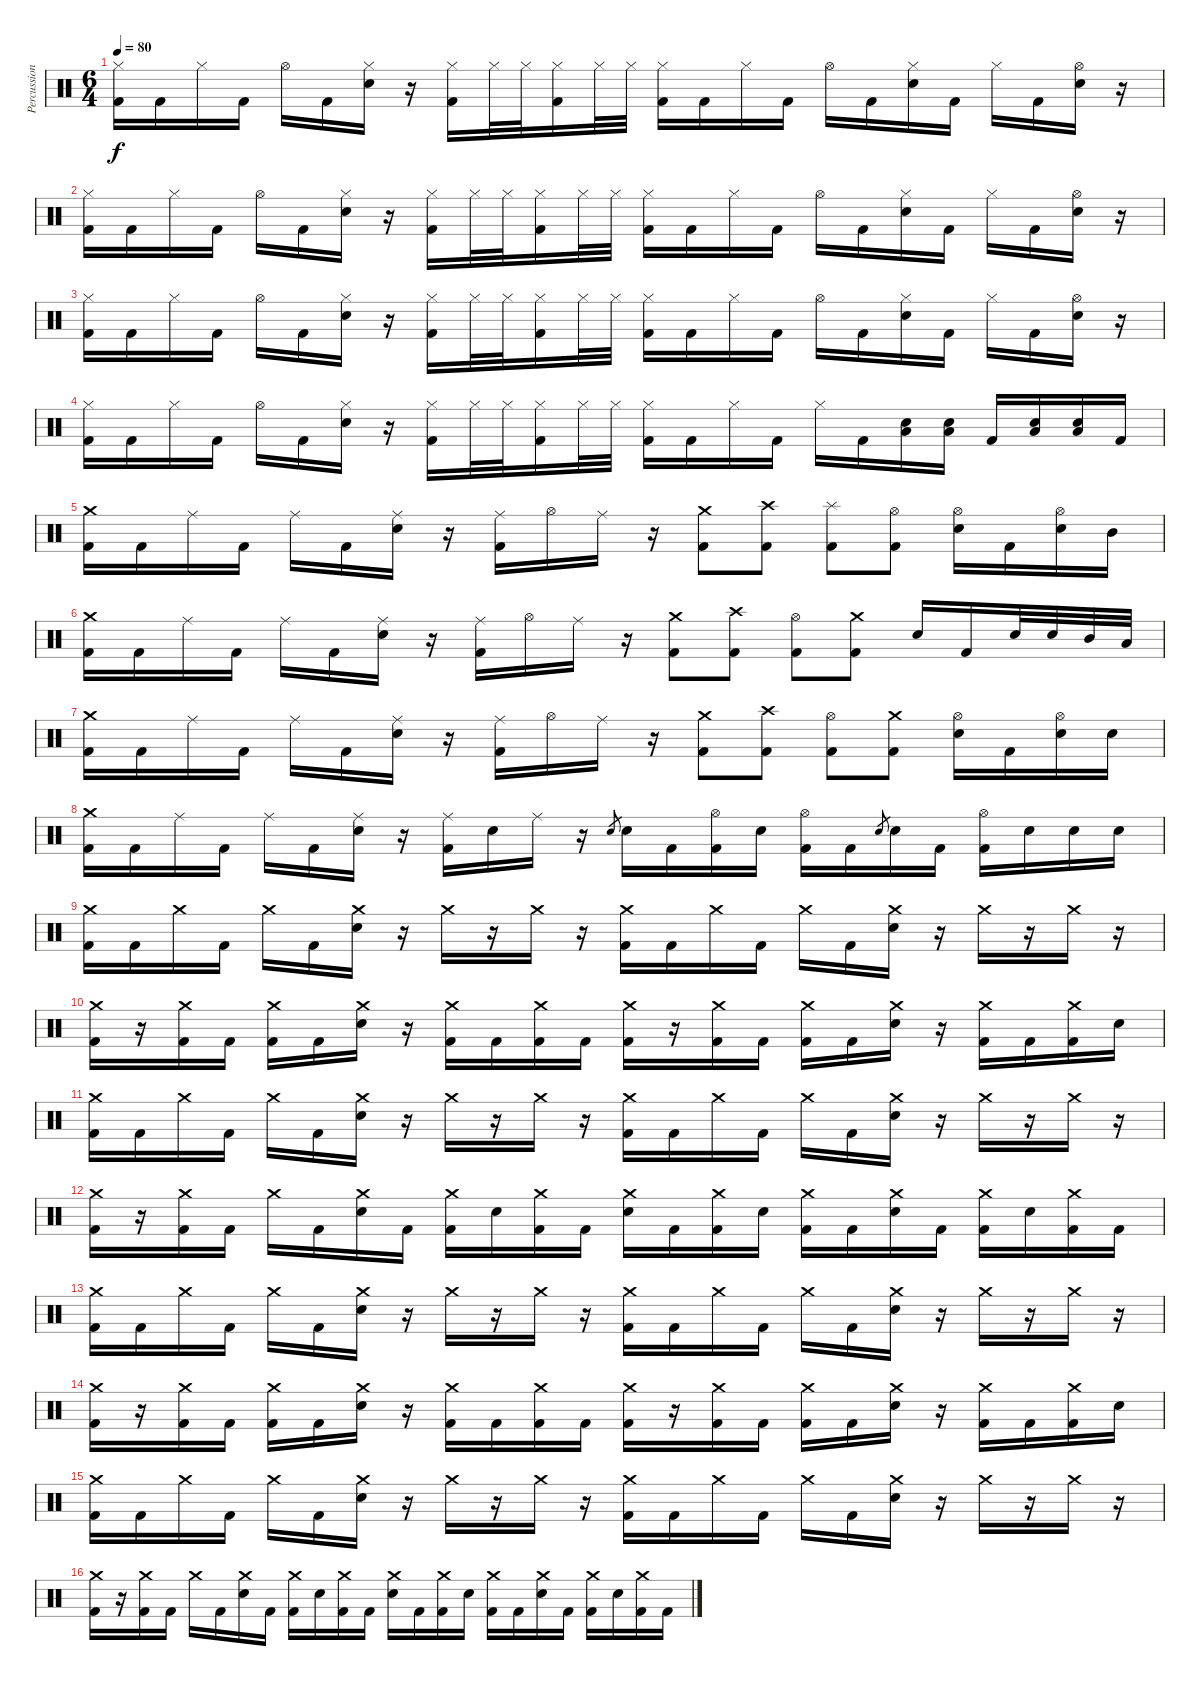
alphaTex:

\track ("Percussion" "Percussion") {instrument percussion}
\staff {score}
\articulation defaults
\ts (6 4)
\tempo 80
\clef neutral
\ks c
("Hi-Hat (closed)" "Kick (hit) 2").16{dy f} "Kick (hit) 2".16 "Hi-Hat (closed)".16 "Kick (hit) 2".16 "Hi-Hat (open)".16 "Kick (hit) 2".16 ("Hi-Hat (closed)" "Electric Snare (hit)").16 r.16 ("Hi-Hat (closed)" "Kick (hit) 2").16 "Hi-Hat (closed)".32 "Hi-Hat (closed)".32 ("Hi-Hat (closed)" "Kick (hit) 2").16 "Hi-Hat (closed)".32 "Hi-Hat (closed)".32 ("Hi-Hat (closed)" "Kick (hit) 2").16 "Kick (hit) 2".16 "Hi-Hat (closed)".16 "Kick (hit) 2".16 "Hi-Hat (open)".16 "Kick (hit) 2".16 ("Hi-Hat (closed)" "Electric Snare (hit)").16 "Kick (hit) 2".16 "Hi-Hat (closed)".16 "Kick (hit) 2".16 ("Hi-Hat (open)" "Electric Snare (hit)").16 r.16 |
("Hi-Hat (closed)" "Kick (hit) 2").16 "Kick (hit) 2".16 "Hi-Hat (closed)".16 "Kick (hit) 2".16 "Hi-Hat (open)".16 "Kick (hit) 2".16 ("Hi-Hat (closed)" "Electric Snare (hit)").16 r.16 ("Hi-Hat (closed)" "Kick (hit) 2").16 "Hi-Hat (closed)".32 "Hi-Hat (closed)".32 ("Hi-Hat (closed)" "Kick (hit) 2").16 "Hi-Hat (closed)".32 "Hi-Hat (closed)".32 ("Hi-Hat (closed)" "Kick (hit) 2").16 "Kick (hit) 2".16 "Hi-Hat (closed)".16 "Kick (hit) 2".16 "Hi-Hat (open)".16 "Kick (hit) 2".16 ("Hi-Hat (closed)" "Electric Snare (hit)").16 "Kick (hit) 2".16 "Hi-Hat (closed)".16 "Kick (hit) 2".16 ("Hi-Hat (open)" "Electric Snare (hit)").16 r.16 |
("Hi-Hat (closed)" "Kick (hit) 2").16 "Kick (hit) 2".16 "Hi-Hat (closed)".16 "Kick (hit) 2".16 "Hi-Hat (open)".16 "Kick (hit) 2".16 ("Hi-Hat (closed)" "Electric Snare (hit)").16 r.16 ("Hi-Hat (closed)" "Kick (hit) 2").16 "Hi-Hat (closed)".32 "Hi-Hat (closed)".32 ("Hi-Hat (closed)" "Kick (hit) 2").16 "Hi-Hat (closed)".32 "Hi-Hat (closed)".32 ("Hi-Hat (closed)" "Kick (hit) 2").16 "Kick (hit) 2".16 "Hi-Hat (closed)".16 "Kick (hit) 2".16 "Hi-Hat (open)".16 "Kick (hit) 2".16 ("Hi-Hat (closed)" "Electric Snare (hit)").16 "Kick (hit) 2".16 "Hi-Hat (closed)".16 "Kick (hit) 2".16 ("Hi-Hat (open)" "Electric Snare (hit)").16 r.16 |
("Hi-Hat (closed)" "Kick (hit) 2").16 "Kick (hit) 2".16 "Hi-Hat (closed)".16 "Kick (hit) 2".16 "Hi-Hat (open)".16 "Kick (hit) 2".16 ("Hi-Hat (closed)" "Electric Snare (hit)").16 r.16 ("Hi-Hat (closed)" "Kick (hit) 2").16 "Hi-Hat (closed)".32 "Hi-Hat (closed)".32 ("Hi-Hat (closed)" "Kick (hit) 2").16 "Hi-Hat (closed)".32 "Hi-Hat (closed)".32 ("Hi-Hat (closed)" "Kick (hit) 2").16 "Kick (hit) 2".16 "Hi-Hat (closed)".16 "Kick (hit) 2".16 "Hi-Hat (closed)".16 "Kick (hit) 2".16 ("Low Floor Tom (hit)" "Electric Snare (hit)").16 ("Low Floor Tom (hit)" "Electric Snare (hit)").16 "Kick (hit) 2".16 ("Low Floor Tom (hit)" "Electric Snare (hit)").16 ("Low Floor Tom (hit)" "Electric Snare (hit)").16 "Kick (hit) 2".16 |
("Crash medium (hit)" "Kick (hit) 2").16 "Kick (hit) 2".16 "Ride (middle)".16 "Kick (hit) 2".16 "Ride (middle)".16 "Kick (hit) 2".16 ("Ride (middle)" "Electric Snare (hit)").16 r.16 ("Ride (middle)" "Kick (hit) 2").16 "Hi-Hat (open)".16 "Ride (middle)".16 r.16 ("Crash medium (hit)" "Kick (hit) 2").8 ("Crash high (hit)" "Kick (hit) 2").8 ("Splash (hit)" "Kick (hit) 2").8 ("Hi-Hat (open)" "Kick (hit) 2").8 ("Hi-Hat (open)" "Electric Snare (hit)").16 "Kick (hit) 2".16 ("Hi-Hat (open)" "Electric Snare (hit)").16 "Mid Tom (hit)".16 |
("Crash medium (hit)" "Kick (hit) 2").16 "Kick (hit) 2".16 "Ride (middle)".16 "Kick (hit) 2".16 "Ride (middle)".16 "Kick (hit) 2".16 ("Ride (middle)" "Electric Snare (hit)").16 r.16 ("Ride (middle)" "Kick (hit) 2").16 "Hi-Hat (open)".16 "Ride (middle)".16 r.16 ("Crash medium (hit)" "Kick (hit) 2").8 ("Crash high (hit)" "Kick (hit) 2").8 ("Hi-Hat (open)" "Kick (hit) 2").8 ("Crash medium (hit)" "Kick (hit) 2").8 "Electric Snare (hit)".16 "Kick (hit) 2".16 "Electric Snare (hit)".32 "Electric Snare (hit)".32 "Mid Tom (hit)".32 "Low Tom (hit)".32 |
("Crash medium (hit)" "Kick (hit) 2").16 "Kick (hit) 2".16 "Ride (middle)".16 "Kick (hit) 2".16 "Ride (middle)".16 "Kick (hit) 2".16 ("Ride (middle)" "Electric Snare (hit)").16 r.16 ("Ride (middle)" "Kick (hit) 2").16 "Hi-Hat (open)".16 "Ride (middle)".16 r.16 ("Crash medium (hit)" "Kick (hit) 2").8 ("Crash high (hit)" "Kick (hit) 2").8 ("Hi-Hat (open)" "Kick (hit) 2").8 ("Crash medium (hit)" "Kick (hit) 2").8 ("Hi-Hat (open)" "Electric Snare (hit)").16 "Kick (hit) 2".16 ("Hi-Hat (open)" "Electric Snare (hit)").16 "Electric Snare (hit)".16 |
("Crash medium (hit)" "Kick (hit) 2").16 "Kick (hit) 2".16 "Ride (middle)".16 "Kick (hit) 2".16 "Ride (middle)".16 "Kick (hit) 2".16 ("Ride (middle)" "Electric Snare (hit)").16 r.16 ("Ride (middle)" "Kick (hit) 2").16 "Electric Snare (hit)".16 "Ride (middle)".16 r.16 "Electric Snare (hit)".8{gr} "Electric Snare (hit)".16 "Kick (hit) 2".16 ("Hi-Hat (open)" "Kick (hit) 2").16 "Electric Snare (hit)".16 ("Hi-Hat (open)" "Kick (hit) 2").16 "Kick (hit) 2".16 "Electric Snare (hit)".8{gr} "Electric Snare (hit)".16 "Kick (hit) 2".16 ("Hi-Hat (open)" "Kick (hit) 2").16 "Electric Snare (hit)".16 "Electric Snare (hit)".16 "Electric Snare (hit)".16 |
("Crash medium (hit)" "Kick (hit) 2").16 "Kick (hit) 2".16 "Crash medium (hit)".16 "Kick (hit) 2".16 "Crash medium (hit)".16 "Kick (hit) 2".16 ("Crash medium (hit)" "Electric Snare (hit)").16 r.16 "Crash medium (hit)".16 r.16 "Crash medium (hit)".16 r.16 ("Crash medium (hit)" "Kick (hit) 2").16 "Kick (hit) 2".16 "Crash medium (hit)".16 "Kick (hit) 2".16 "Crash medium (hit)".16 "Kick (hit) 2".16 ("Crash medium (hit)" "Electric Snare (hit)").16 r.16 "Crash medium (hit)".16 r.16 "Crash medium (hit)".16 r.16 |
("Crash medium (hit)" "Kick (hit) 2").16 r.16 ("Crash medium (hit)" "Kick (hit) 2").16 "Kick (hit) 2".16 ("Crash medium (hit)" "Kick (hit) 2").16 "Kick (hit) 2".16 ("Crash medium (hit)" "Electric Snare (hit)").16 r.16 ("Crash medium (hit)" "Kick (hit) 2").16 "Kick (hit) 2".16 ("Crash medium (hit)" "Kick (hit) 2").16 "Kick (hit) 2".16 ("Crash medium (hit)" "Kick (hit) 2").16 r.16 ("Crash medium (hit)" "Kick (hit) 2").16 "Kick (hit) 2".16 ("Crash medium (hit)" "Kick (hit) 2").16 "Kick (hit) 2".16 ("Crash medium (hit)" "Electric Snare (hit)").16 r.16 ("Crash medium (hit)" "Kick (hit) 2").16 "Kick (hit) 2".16 ("Crash medium (hit)" "Kick (hit) 2").16 "Electric Snare (hit)".16 |
("Crash medium (hit)" "Kick (hit) 2").16 "Kick (hit) 2".16 "Crash medium (hit)".16 "Kick (hit) 2".16 "Crash medium (hit)".16 "Kick (hit) 2".16 ("Crash medium (hit)" "Electric Snare (hit)").16 r.16 "Crash medium (hit)".16 r.16 "Crash medium (hit)".16 r.16 ("Crash medium (hit)" "Kick (hit) 2").16 "Kick (hit) 2".16 "Crash medium (hit)".16 "Kick (hit) 2".16 "Crash medium (hit)".16 "Kick (hit) 2".16 ("Crash medium (hit)" "Electric Snare (hit)").16 r.16 "Crash medium (hit)".16 r.16 "Crash medium (hit)".16 r.16 |
("Crash medium (hit)" "Kick (hit) 2").16 r.16 ("Crash medium (hit)" "Kick (hit) 2").16 "Kick (hit) 2".16 "Crash medium (hit)".16 "Kick (hit) 2".16 ("Crash medium (hit)" "Electric Snare (hit)").16 "Kick (hit) 2".16 ("Crash medium (hit)" "Kick (hit) 2").16 "Electric Snare (hit)".16 ("Crash medium (hit)" "Kick (hit) 2").16 "Kick (hit) 2".16 ("Crash medium (hit)" "Electric Snare (hit)").16 "Kick (hit) 2".16 ("Crash medium (hit)" "Kick (hit) 2").16 "Electric Snare (hit)".16 ("Crash medium (hit)" "Kick (hit) 2").16 "Kick (hit) 2".16 ("Crash medium (hit)" "Electric Snare (hit)").16 "Kick (hit) 2".16 ("Crash medium (hit)" "Kick (hit) 2").16 "Electric Snare (hit)".16 ("Crash medium (hit)" "Kick (hit) 2").16 "Kick (hit) 2".16 |
("Crash medium (hit)" "Kick (hit) 2").16 "Kick (hit) 2".16 "Crash medium (hit)".16 "Kick (hit) 2".16 "Crash medium (hit)".16 "Kick (hit) 2".16 ("Crash medium (hit)" "Electric Snare (hit)").16 r.16 "Crash medium (hit)".16 r.16 "Crash medium (hit)".16 r.16 ("Crash medium (hit)" "Kick (hit) 2").16 "Kick (hit) 2".16 "Crash medium (hit)".16 "Kick (hit) 2".16 "Crash medium (hit)".16 "Kick (hit) 2".16 ("Crash medium (hit)" "Electric Snare (hit)").16 r.16 "Crash medium (hit)".16 r.16 "Crash medium (hit)".16 r.16 |
("Crash medium (hit)" "Kick (hit) 2").16 r.16 ("Crash medium (hit)" "Kick (hit) 2").16 "Kick (hit) 2".16 ("Crash medium (hit)" "Kick (hit) 2").16 "Kick (hit) 2".16 ("Crash medium (hit)" "Electric Snare (hit)").16 r.16 ("Crash medium (hit)" "Kick (hit) 2").16 "Kick (hit) 2".16 ("Crash medium (hit)" "Kick (hit) 2").16 "Kick (hit) 2".16 ("Crash medium (hit)" "Kick (hit) 2").16 r.16 ("Crash medium (hit)" "Kick (hit) 2").16 "Kick (hit) 2".16 ("Crash medium (hit)" "Kick (hit) 2").16 "Kick (hit) 2".16 ("Crash medium (hit)" "Electric Snare (hit)").16 r.16 ("Crash medium (hit)" "Kick (hit) 2").16 "Kick (hit) 2".16 ("Crash medium (hit)" "Kick (hit) 2").16 "Electric Snare (hit)".16 |
("Crash medium (hit)" "Kick (hit) 2").16 "Kick (hit) 2".16 "Crash medium (hit)".16 "Kick (hit) 2".16 "Crash medium (hit)".16 "Kick (hit) 2".16 ("Crash medium (hit)" "Electric Snare (hit)").16 r.16 "Crash medium (hit)".16 r.16 "Crash medium (hit)".16 r.16 ("Crash medium (hit)" "Kick (hit) 2").16 "Kick (hit) 2".16 "Crash medium (hit)".16 "Kick (hit) 2".16 "Crash medium (hit)".16 "Kick (hit) 2".16 ("Crash medium (hit)" "Electric Snare (hit)").16 r.16 "Crash medium (hit)".16 r.16 "Crash medium (hit)".16 r.16 |
("Crash medium (hit)" "Kick (hit) 2").16 r.16 ("Crash medium (hit)" "Kick (hit) 2").16 "Kick (hit) 2".16 "Crash medium (hit)".16 "Kick (hit) 2".16 ("Crash medium (hit)" "Electric Snare (hit)").16 "Kick (hit) 2".16 ("Crash medium (hit)" "Kick (hit) 2").16 "Electric Snare (hit)".16 ("Crash medium (hit)" "Kick (hit) 2").16 "Kick (hit) 2".16 ("Crash medium (hit)" "Electric Snare (hit)").16 "Kick (hit) 2".16 ("Crash medium (hit)" "Kick (hit) 2").16 "Electric Snare (hit)".16 ("Crash medium (hit)" "Kick (hit) 2").16 "Kick (hit) 2".16 ("Crash medium (hit)" "Electric Snare (hit)").16 "Kick (hit) 2".16 ("Crash medium (hit)" "Kick (hit) 2").16 "Electric Snare (hit)".16 ("Crash medium (hit)" "Kick (hit) 2").16 "Kick (hit) 2".16
